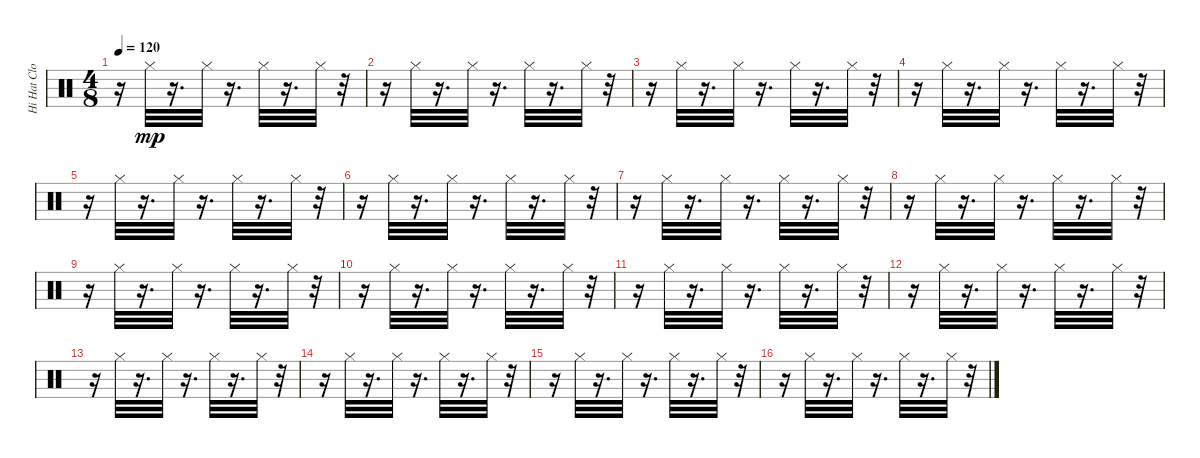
\track ("Hi Hat Close" "Hi Hat Clo") {instrument percussion}
\staff {score}
\articulation defaults
\ts (4 8)
\tempo 120
\clef neutral
\ks c
r.16{dy mp} "Hi-Hat (closed)".32 r.16{d} "Hi-Hat (closed)".32 r.16{d} "Hi-Hat (closed)".32 r.16{d} "Hi-Hat (closed)".32 r.32 |
r.16 "Hi-Hat (closed)".32 r.16{d} "Hi-Hat (closed)".32 r.16{d} "Hi-Hat (closed)".32 r.16{d} "Hi-Hat (closed)".32 r.32 |
r.16 "Hi-Hat (closed)".32 r.16{d} "Hi-Hat (closed)".32 r.16{d} "Hi-Hat (closed)".32 r.16{d} "Hi-Hat (closed)".32 r.32 |
r.16 "Hi-Hat (closed)".32 r.16{d} "Hi-Hat (closed)".32 r.16{d} "Hi-Hat (closed)".32 r.16{d} "Hi-Hat (closed)".32 r.32 |
r.16 "Hi-Hat (closed)".32 r.16{d} "Hi-Hat (closed)".32 r.16{d} "Hi-Hat (closed)".32 r.16{d} "Hi-Hat (closed)".32 r.32 |
r.16 "Hi-Hat (closed)".32 r.16{d} "Hi-Hat (closed)".32 r.16{d} "Hi-Hat (closed)".32 r.16{d} "Hi-Hat (closed)".32 r.32 |
r.16 "Hi-Hat (closed)".32 r.16{d} "Hi-Hat (closed)".32 r.16{d} "Hi-Hat (closed)".32 r.16{d} "Hi-Hat (closed)".32 r.32 |
r.16 "Hi-Hat (closed)".32 r.16{d} "Hi-Hat (closed)".32 r.16{d} "Hi-Hat (closed)".32 r.16{d} "Hi-Hat (closed)".32 r.32 |
r.16 "Hi-Hat (closed)".32 r.16{d} "Hi-Hat (closed)".32 r.16{d} "Hi-Hat (closed)".32 r.16{d} "Hi-Hat (closed)".32 r.32 |
r.16 "Hi-Hat (closed)".32 r.16{d} "Hi-Hat (closed)".32 r.16{d} "Hi-Hat (closed)".32 r.16{d} "Hi-Hat (closed)".32 r.32 |
r.16 "Hi-Hat (closed)".32 r.16{d} "Hi-Hat (closed)".32 r.16{d} "Hi-Hat (closed)".32 r.16{d} "Hi-Hat (closed)".32 r.32 |
r.16 "Hi-Hat (closed)".32 r.16{d} "Hi-Hat (closed)".32 r.16{d} "Hi-Hat (closed)".32 r.16{d} "Hi-Hat (closed)".32 r.32 |
r.16 "Hi-Hat (closed)".32 r.16{d} "Hi-Hat (closed)".32 r.16{d} "Hi-Hat (closed)".32 r.16{d} "Hi-Hat (closed)".32 r.32 |
r.16 "Hi-Hat (closed)".32 r.16{d} "Hi-Hat (closed)".32 r.16{d} "Hi-Hat (closed)".32 r.16{d} "Hi-Hat (closed)".32 r.32 |
r.16 "Hi-Hat (closed)".32 r.16{d} "Hi-Hat (closed)".32 r.16{d} "Hi-Hat (closed)".32 r.16{d} "Hi-Hat (closed)".32 r.32 |
r.16 "Hi-Hat (closed)".32 r.16{d} "Hi-Hat (closed)".32 r.16{d} "Hi-Hat (closed)".32 r.16{d} "Hi-Hat (closed)".32 r.32
